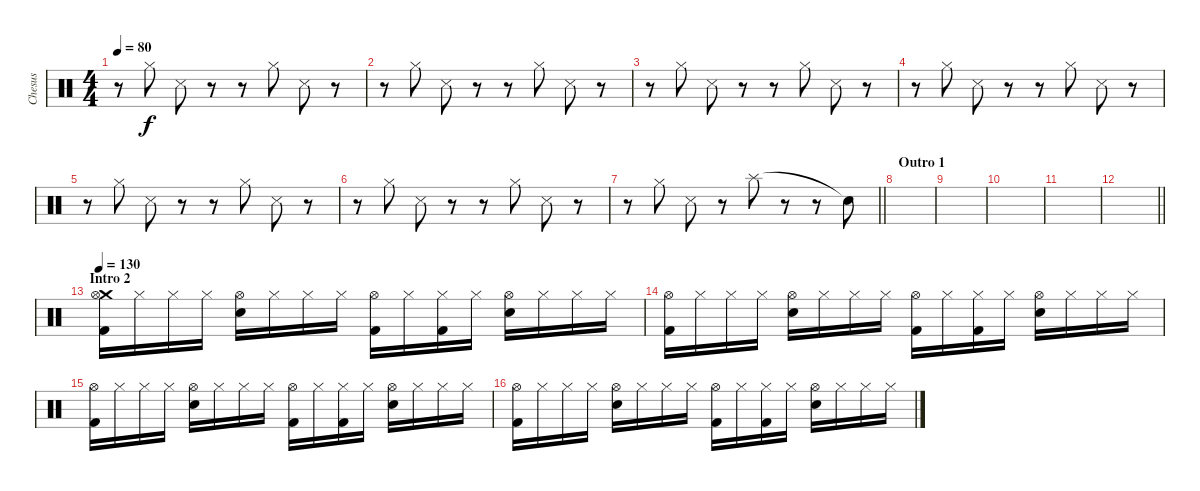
\track ("Chesus" "Chesus") {instrument percussion}
\staff {score}
\articulation defaults
\ts (4 4)
\tempo 80
\clef neutral
\ks c
r.8{dy f} "Hi-Hat (closed)".8 "Snare (side stick) 3".8 r.8 r.8 "Hi-Hat (closed)".8 "Snare (side stick) 3".8 r.8 |
r.8 "Hi-Hat (closed)".8 "Snare (side stick) 3".8 r.8 r.8 "Hi-Hat (closed)".8 "Snare (side stick) 3".8 r.8 |
r.8 "Hi-Hat (closed)".8 "Snare (side stick) 3".8 r.8 r.8 "Hi-Hat (closed)".8 "Snare (side stick) 3".8 r.8 |
r.8 "Hi-Hat (closed)".8 "Snare (side stick) 3".8 r.8 r.8 "Hi-Hat (closed)".8 "Snare (side stick) 3".8 r.8 |
r.8 "Hi-Hat (closed)".8 "Snare (side stick) 3".8 r.8 r.8 "Hi-Hat (closed)".8 "Snare (side stick) 3".8 r.8 |
r.8 "Hi-Hat (closed)".8 "Snare (side stick) 3".8 r.8 r.8 "Hi-Hat (closed)".8 "Snare (side stick) 3".8 r.8 |
\barLineRight lightlight
r.8 "Hi-Hat (closed)".8 "Snare (side stick) 3".8 r.8 "Splash (hit)".8 r.8 r.8 "Snare (hit)"{t}.8 |
\section ("" "Outro 1")
|
|
|
|
\barLineRight lightlight
|
\section ("" "Intro 2")
\tempo 130
("Crash medium (hit)" "Hi-Hat (open)" "Kick (hit) 2").16 "Hi-Hat (closed)".16 "Hi-Hat (closed)".16 "Hi-Hat (closed)".16 ("Hi-Hat (open)" "Snare (hit) 2").16 "Hi-Hat (closed)".16 "Hi-Hat (closed)".16 "Hi-Hat (closed)".16 ("Hi-Hat (open)" "Kick (hit) 2").16 "Hi-Hat (closed)".16 ("Hi-Hat (closed)" "Kick (hit) 2").16 "Hi-Hat (closed)".16 ("Hi-Hat (open)" "Snare (hit) 2").16 "Hi-Hat (closed)".16 "Hi-Hat (closed)".16 "Hi-Hat (closed)".16 |
("Hi-Hat (open)" "Kick (hit) 2").16 "Hi-Hat (closed)".16 "Hi-Hat (closed)".16 "Hi-Hat (closed)".16 ("Hi-Hat (open)" "Snare (hit) 2").16 "Hi-Hat (closed)".16 "Hi-Hat (closed)".16 "Hi-Hat (closed)".16 ("Hi-Hat (open)" "Kick (hit) 2").16 "Hi-Hat (closed)".16 ("Hi-Hat (closed)" "Kick (hit) 2").16 "Hi-Hat (closed)".16 ("Hi-Hat (open)" "Snare (hit) 2").16 "Hi-Hat (closed)".16 "Hi-Hat (closed)".16 "Hi-Hat (closed)".16 |
("Hi-Hat (open)" "Kick (hit) 2").16 "Hi-Hat (closed)".16 "Hi-Hat (closed)".16 "Hi-Hat (closed)".16 ("Hi-Hat (open)" "Snare (hit) 2").16 "Hi-Hat (closed)".16 "Hi-Hat (closed)".16 "Hi-Hat (closed)".16 ("Hi-Hat (open)" "Kick (hit) 2").16 "Hi-Hat (closed)".16 ("Hi-Hat (closed)" "Kick (hit) 2").16 "Hi-Hat (closed)".16 ("Hi-Hat (open)" "Snare (hit) 2").16 "Hi-Hat (closed)".16 "Hi-Hat (closed)".16 "Hi-Hat (closed)".16 |
("Hi-Hat (open)" "Kick (hit) 2").16 "Hi-Hat (closed)".16 "Hi-Hat (closed)".16 "Hi-Hat (closed)".16 ("Hi-Hat (open)" "Snare (hit) 2").16 "Hi-Hat (closed)".16 "Hi-Hat (closed)".16 "Hi-Hat (closed)".16 ("Hi-Hat (open)" "Kick (hit) 2").16 "Hi-Hat (closed)".16 ("Hi-Hat (closed)" "Kick (hit) 2").16 "Hi-Hat (closed)".16 ("Hi-Hat (open)" "Snare (hit) 2").16 "Hi-Hat (closed)".16 "Hi-Hat (closed)".16 "Hi-Hat (closed)".16
